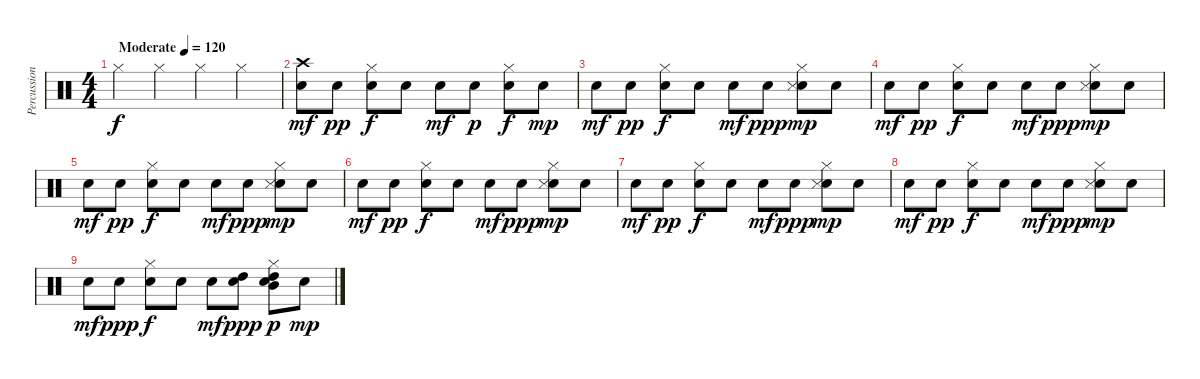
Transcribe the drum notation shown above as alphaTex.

\track ("Percussion" "Percussion") {instrument percussion}
\staff {score}
\articulation defaults
\ts (4 4)
\tempo (120 "Moderate")
\clef neutral
\ks c "Hi-Hat (closed)".4{dy f} "Hi-Hat (closed)".4 "Hi-Hat (closed)".4 "Hi-Hat (closed)".4
|
("Snare (hit) 2" "Crash high (hit)").8{dy mf} "Snare (hit) 2".8{dy pp} ("Snare (hit) 2" "Hi-Hat (closed)").8{dy f} "Snare (hit) 2".8 "Snare (hit) 2".8{dy mf} "Snare (hit) 2".8{dy p} ("Snare (hit) 2" "Hi-Hat (closed)").8{dy f} "Snare (hit) 2".8{dy mp} |
"Snare (hit) 2".8{dy mf} "Snare (hit) 2".8{dy pp} ("Snare (hit) 2" "Hi-Hat (closed)").8{dy f} "Snare (hit) 2".8 "Snare (hit) 2".8{dy mf} "Snare (hit) 2".8{dy ppp} ("Snare (hit) 2" "Hi-Hat (closed)" "Snare (side stick) 3").8{dy mp} "Snare (hit) 2".8 |
"Snare (hit) 2".8{dy mf} "Snare (hit) 2".8{dy pp} ("Snare (hit) 2" "Hi-Hat (closed)").8{dy f} "Snare (hit) 2".8 "Snare (hit) 2".8{dy mf} "Snare (hit) 2".8{dy ppp} ("Snare (hit) 2" "Hi-Hat (closed)" "Snare (side stick) 3").8{dy mp} "Snare (hit) 2".8 |
"Snare (hit) 2".8{dy mf} "Snare (hit) 2".8{dy pp} ("Snare (hit) 2" "Hi-Hat (closed)").8{dy f} "Snare (hit) 2".8 "Snare (hit) 2".8{dy mf} "Snare (hit) 2".8{dy ppp} ("Snare (hit) 2" "Hi-Hat (closed)" "Snare (side stick) 3").8{dy mp} "Snare (hit) 2".8 |
"Snare (hit) 2".8{dy mf} "Snare (hit) 2".8{dy pp} ("Snare (hit) 2" "Hi-Hat (closed)").8{dy f} "Snare (hit) 2".8 "Snare (hit) 2".8{dy mf} "Snare (hit) 2".8{dy ppp} ("Snare (hit) 2" "Hi-Hat (closed)" "Snare (side stick) 3").8{dy mp} "Snare (hit) 2".8 |
"Snare (hit) 2".8{dy mf} "Snare (hit) 2".8{dy pp} ("Snare (hit) 2" "Hi-Hat (closed)").8{dy f} "Snare (hit) 2".8 "Snare (hit) 2".8{dy mf} "Snare (hit) 2".8{dy ppp} ("Snare (hit) 2" "Hi-Hat (closed)" "Snare (side stick) 3").8{dy mp} "Snare (hit) 2".8 |
"Snare (hit) 2".8{dy mf} "Snare (hit) 2".8{dy pp} ("Snare (hit) 2" "Hi-Hat (closed)").8{dy f} "Snare (hit) 2".8 "Snare (hit) 2".8{dy mf} "Snare (hit) 2".8{dy ppp} ("Snare (hit) 2" "Hi-Hat (closed)" "Snare (side stick) 3").8{dy mp} "Snare (hit) 2".8 |
"Snare (hit) 2".8{dy mf} "Snare (hit) 2".8{dy ppp} ("Snare (hit) 2" "Hi-Hat (closed)").8{dy f} "Snare (hit) 2".8 "Snare (hit) 2".8{dy mf} ("Snare (hit) 2" "High Tom (hit)").8{dy ppp} ("Snare (hit) 2" "Hi-Hat (closed)" "High Tom (hit)" "Mid Tom (hit)").8{dy p} "Snare (hit) 2".8{dy mp}
